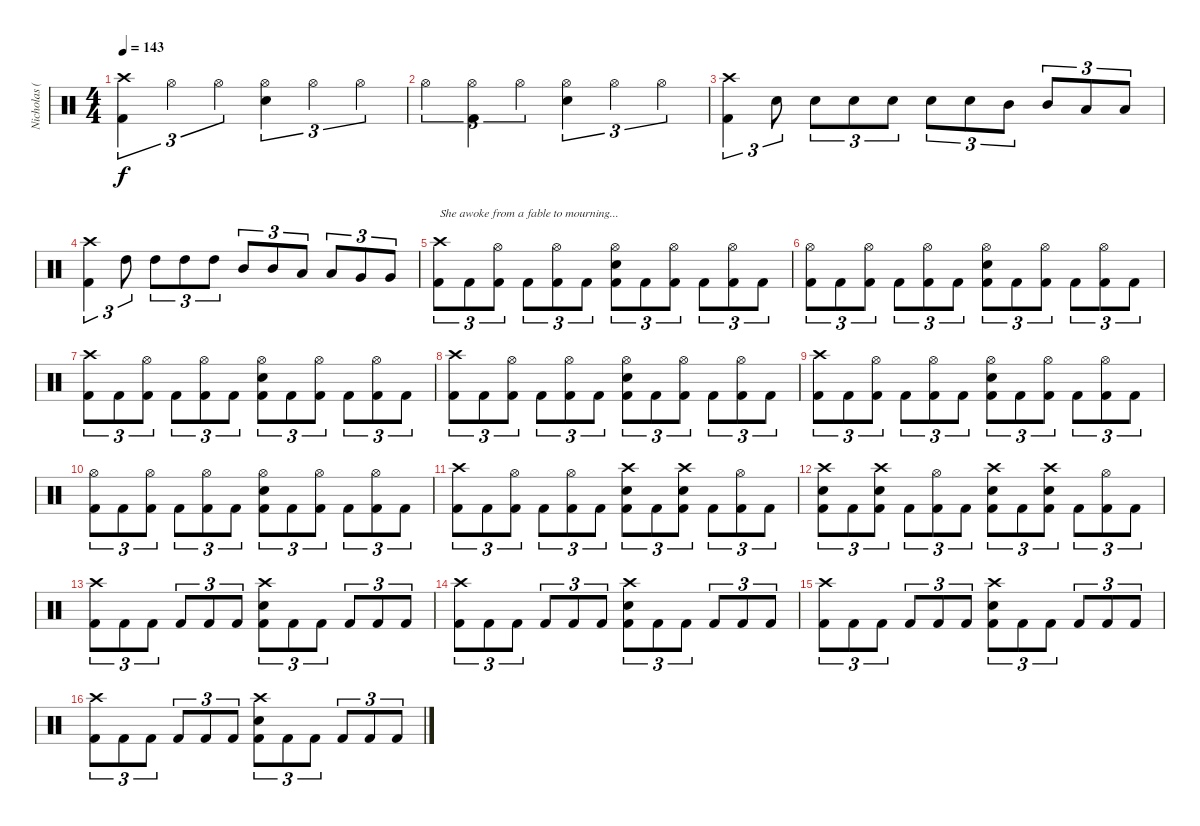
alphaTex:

\track ("Nicholas (Drums)" "Nicholas (") {instrument percussion}
\staff {score}
\articulation defaults
\ts (4 4)
\tempo 143
\clef neutral
\ks c
("Crash high (hit)" "Kick (hit) 2").4{tu (3 2) dy f} "Hi-Hat (open)".4{tu (3 2)} "Hi-Hat (open)".4{tu (3 2)} ("Hi-Hat (open)" "Electric Snare (hit)").4{tu (3 2)} "Hi-Hat (open)".4{tu (3 2)} "Hi-Hat (open)".4{tu (3 2)} |
"Hi-Hat (open)".4{tu (3 2)} ("Hi-Hat (open)" "Kick (hit) 2").4{tu (3 2)} "Hi-Hat (open)".4{tu (3 2)} ("Hi-Hat (open)" "Electric Snare (hit)").4{tu (3 2)} "Hi-Hat (open)".4{tu (3 2)} "Hi-Hat (open)".4{tu (3 2)} |
("Crash high (hit)" "Kick (hit) 2").4{tu (3 2)} "Electric Snare (hit)".8{tu (3 2)} "Electric Snare (hit)".8{tu (3 2)} "Electric Snare (hit)".8{tu (3 2)} "Electric Snare (hit)".8{tu (3 2)} "Electric Snare (hit)".8{tu (3 2)} "Electric Snare (hit)".8{tu (3 2)} "Mid Tom (hit)".8{tu (3 2)} "Mid Tom (hit)".8{tu (3 2)} "Low Tom (hit)".8{tu (3 2)} "Low Tom (hit)".8{tu (3 2)} |
("Crash high (hit)" "Kick (hit) 2").4{tu (3 2)} "High Tom (hit)".8{tu (3 2)} "High Tom (hit)".8{tu (3 2)} "High Tom (hit)".8{tu (3 2)} "High Tom (hit)".8{tu (3 2)} "Mid Tom (hit)".8{tu (3 2)} "Mid Tom (hit)".8{tu (3 2)} "Low Tom (hit)".8{tu (3 2)} "Low Tom (hit)".8{tu (3 2)} "Very Low Tom (hit)".8{tu (3 2)} "Very Low Tom (hit)".8{tu (3 2)} |
("Crash high (hit)" "Kick (hit) 2").8{tu (3 2) txt "She awoke from a fable to mourning..."} "Kick (hit) 2".8{tu (3 2)} ("Hi-Hat (open)" "Kick (hit) 2").8{tu (3 2)} "Kick (hit) 2".8{tu (3 2)} ("Hi-Hat (open)" "Kick (hit) 2").8{tu (3 2)} "Kick (hit) 2".8{tu (3 2)} ("Hi-Hat (open)" "Electric Snare (hit)" "Kick (hit) 2").8{tu (3 2)} "Kick (hit) 2".8{tu (3 2)} ("Hi-Hat (open)" "Kick (hit) 2").8{tu (3 2)} "Kick (hit) 2".8{tu (3 2)} ("Hi-Hat (open)" "Kick (hit) 2").8{tu (3 2)} "Kick (hit) 2".8{tu (3 2)} |
("Hi-Hat (open)" "Kick (hit) 2").8{tu (3 2)} "Kick (hit) 2".8{tu (3 2)} ("Hi-Hat (open)" "Kick (hit) 2").8{tu (3 2)} "Kick (hit) 2".8{tu (3 2)} ("Hi-Hat (open)" "Kick (hit) 2").8{tu (3 2)} "Kick (hit) 2".8{tu (3 2)} ("Hi-Hat (open)" "Electric Snare (hit)" "Kick (hit) 2").8{tu (3 2)} "Kick (hit) 2".8{tu (3 2)} ("Hi-Hat (open)" "Kick (hit) 2").8{tu (3 2)} "Kick (hit) 2".8{tu (3 2)} ("Hi-Hat (open)" "Kick (hit) 2").8{tu (3 2)} "Kick (hit) 2".8{tu (3 2)} |
("Crash high (hit)" "Kick (hit) 2").8{tu (3 2)} "Kick (hit) 2".8{tu (3 2)} ("Hi-Hat (open)" "Kick (hit) 2").8{tu (3 2)} "Kick (hit) 2".8{tu (3 2)} ("Hi-Hat (open)" "Kick (hit) 2").8{tu (3 2)} "Kick (hit) 2".8{tu (3 2)} ("Hi-Hat (open)" "Electric Snare (hit)" "Kick (hit) 2").8{tu (3 2)} "Kick (hit) 2".8{tu (3 2)} ("Hi-Hat (open)" "Kick (hit) 2").8{tu (3 2)} "Kick (hit) 2".8{tu (3 2)} ("Hi-Hat (open)" "Kick (hit) 2").8{tu (3 2)} "Kick (hit) 2".8{tu (3 2)} |
("Crash high (hit)" "Kick (hit) 2").8{tu (3 2)} "Kick (hit) 2".8{tu (3 2)} ("Hi-Hat (open)" "Kick (hit) 2").8{tu (3 2)} "Kick (hit) 2".8{tu (3 2)} ("Hi-Hat (open)" "Kick (hit) 2").8{tu (3 2)} "Kick (hit) 2".8{tu (3 2)} ("Hi-Hat (open)" "Electric Snare (hit)" "Kick (hit) 2").8{tu (3 2)} "Kick (hit) 2".8{tu (3 2)} ("Hi-Hat (open)" "Kick (hit) 2").8{tu (3 2)} "Kick (hit) 2".8{tu (3 2)} ("Hi-Hat (open)" "Kick (hit) 2").8{tu (3 2)} "Kick (hit) 2".8{tu (3 2)} |
("Crash high (hit)" "Kick (hit) 2").8{tu (3 2)} "Kick (hit) 2".8{tu (3 2)} ("Hi-Hat (open)" "Kick (hit) 2").8{tu (3 2)} "Kick (hit) 2".8{tu (3 2)} ("Hi-Hat (open)" "Kick (hit) 2").8{tu (3 2)} "Kick (hit) 2".8{tu (3 2)} ("Hi-Hat (open)" "Electric Snare (hit)" "Kick (hit) 2").8{tu (3 2)} "Kick (hit) 2".8{tu (3 2)} ("Hi-Hat (open)" "Kick (hit) 2").8{tu (3 2)} "Kick (hit) 2".8{tu (3 2)} ("Hi-Hat (open)" "Kick (hit) 2").8{tu (3 2)} "Kick (hit) 2".8{tu (3 2)} |
("Hi-Hat (open)" "Kick (hit) 2").8{tu (3 2)} "Kick (hit) 2".8{tu (3 2)} ("Hi-Hat (open)" "Kick (hit) 2").8{tu (3 2)} "Kick (hit) 2".8{tu (3 2)} ("Hi-Hat (open)" "Kick (hit) 2").8{tu (3 2)} "Kick (hit) 2".8{tu (3 2)} ("Hi-Hat (open)" "Electric Snare (hit)" "Kick (hit) 2").8{tu (3 2)} "Kick (hit) 2".8{tu (3 2)} ("Hi-Hat (open)" "Kick (hit) 2").8{tu (3 2)} "Kick (hit) 2".8{tu (3 2)} ("Hi-Hat (open)" "Kick (hit) 2").8{tu (3 2)} "Kick (hit) 2".8{tu (3 2)} |
("Crash high (hit)" "Kick (hit) 2").8{tu (3 2)} "Kick (hit) 2".8{tu (3 2)} ("Hi-Hat (open)" "Kick (hit) 2").8{tu (3 2)} "Kick (hit) 2".8{tu (3 2)} ("Hi-Hat (open)" "Kick (hit) 2").8{tu (3 2)} "Kick (hit) 2".8{tu (3 2)} ("Crash high (hit)" "Electric Snare (hit)" "Kick (hit) 2").8{tu (3 2)} "Kick (hit) 2".8{tu (3 2)} ("Crash high (hit)" "Electric Snare (hit)" "Kick (hit) 2").8{tu (3 2)} "Kick (hit) 2".8{tu (3 2)} ("Hi-Hat (open)" "Kick (hit) 2").8{tu (3 2)} "Kick (hit) 2".8{tu (3 2)} |
("Crash high (hit)" "Electric Snare (hit)" "Kick (hit) 2").8{tu (3 2)} "Kick (hit) 2".8{tu (3 2)} ("Crash high (hit)" "Electric Snare (hit)" "Kick (hit) 2").8{tu (3 2)} "Kick (hit) 2".8{tu (3 2)} ("Hi-Hat (open)" "Kick (hit) 2").8{tu (3 2)} "Kick (hit) 2".8{tu (3 2)} ("Crash high (hit)" "Electric Snare (hit)" "Kick (hit) 2").8{tu (3 2)} "Kick (hit) 2".8{tu (3 2)} ("Crash high (hit)" "Electric Snare (hit)" "Kick (hit) 2").8{tu (3 2)} "Kick (hit) 2".8{tu (3 2)} ("Hi-Hat (open)" "Kick (hit) 2").8{tu (3 2)} "Kick (hit) 2".8{tu (3 2)} |
("Crash high (hit)" "Kick (hit) 2").8{tu (3 2)} "Kick (hit) 2".8{tu (3 2)} "Kick (hit) 2".8{tu (3 2)} "Kick (hit) 2".8{tu (3 2)} "Kick (hit) 2".8{tu (3 2)} "Kick (hit) 2".8{tu (3 2)} ("Crash high (hit)" "Electric Snare (hit)" "Kick (hit) 2").8{tu (3 2)} "Kick (hit) 2".8{tu (3 2)} "Kick (hit) 2".8{tu (3 2)} "Kick (hit) 2".8{tu (3 2)} "Kick (hit) 2".8{tu (3 2)} "Kick (hit) 2".8{tu (3 2)} |
("Crash high (hit)" "Kick (hit) 2").8{tu (3 2)} "Kick (hit) 2".8{tu (3 2)} "Kick (hit) 2".8{tu (3 2)} "Kick (hit) 2".8{tu (3 2)} "Kick (hit) 2".8{tu (3 2)} "Kick (hit) 2".8{tu (3 2)} ("Crash high (hit)" "Electric Snare (hit)" "Kick (hit) 2").8{tu (3 2)} "Kick (hit) 2".8{tu (3 2)} "Kick (hit) 2".8{tu (3 2)} "Kick (hit) 2".8{tu (3 2)} "Kick (hit) 2".8{tu (3 2)} "Kick (hit) 2".8{tu (3 2)} |
("Crash high (hit)" "Kick (hit) 2").8{tu (3 2)} "Kick (hit) 2".8{tu (3 2)} "Kick (hit) 2".8{tu (3 2)} "Kick (hit) 2".8{tu (3 2)} "Kick (hit) 2".8{tu (3 2)} "Kick (hit) 2".8{tu (3 2)} ("Crash high (hit)" "Electric Snare (hit)" "Kick (hit) 2").8{tu (3 2)} "Kick (hit) 2".8{tu (3 2)} "Kick (hit) 2".8{tu (3 2)} "Kick (hit) 2".8{tu (3 2)} "Kick (hit) 2".8{tu (3 2)} "Kick (hit) 2".8{tu (3 2)} |
("Crash high (hit)" "Kick (hit) 2").8{tu (3 2)} "Kick (hit) 2".8{tu (3 2)} "Kick (hit) 2".8{tu (3 2)} "Kick (hit) 2".8{tu (3 2)} "Kick (hit) 2".8{tu (3 2)} "Kick (hit) 2".8{tu (3 2)} ("Crash high (hit)" "Electric Snare (hit)" "Kick (hit) 2").8{tu (3 2)} "Kick (hit) 2".8{tu (3 2)} "Kick (hit) 2".8{tu (3 2)} "Kick (hit) 2".8{tu (3 2)} "Kick (hit) 2".8{tu (3 2)} "Kick (hit) 2".8{tu (3 2)}
